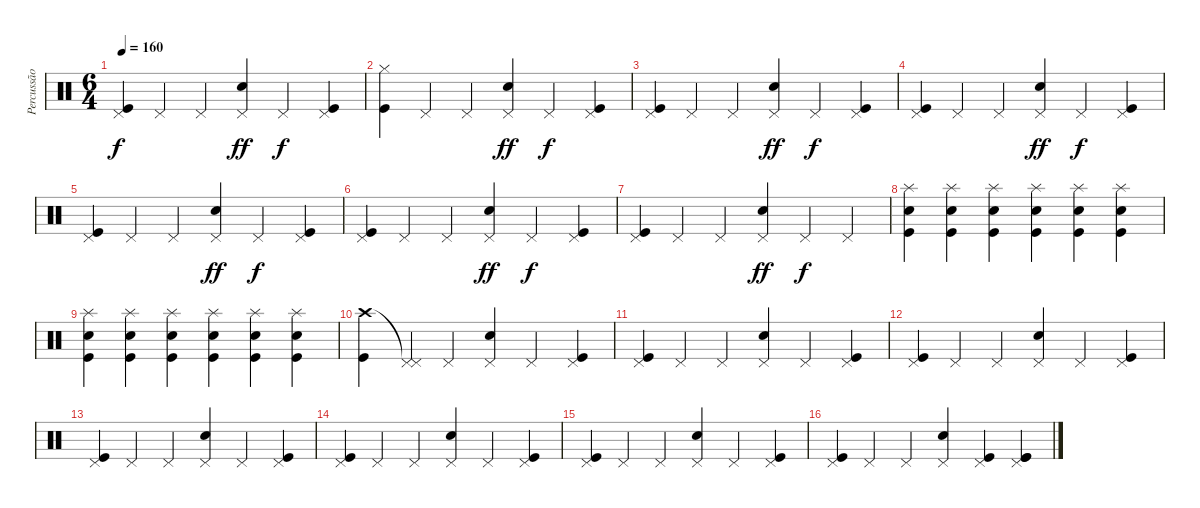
\track ("Percussão" "Percussão") {instrument percussion}
\staff {score}
\articulation defaults
\ts (6 4)
\tempo 160
\clef neutral
\ks c
("Pedal Hi-Hat (hit)" "Kick (hit)").4{dy f} "Pedal Hi-Hat (hit)".4 "Pedal Hi-Hat (hit)".4 ("Pedal Hi-Hat (hit)" "Snare (hit) 2").4{dy ff} "Pedal Hi-Hat (hit)".4{dy f} ("Pedal Hi-Hat (hit)" "Kick (hit)").4 |
("Hi-Hat (closed)" "Kick (hit)").4 "Pedal Hi-Hat (hit)".4 "Pedal Hi-Hat (hit)".4 ("Pedal Hi-Hat (hit)" "Snare (hit) 2").4{dy ff} "Pedal Hi-Hat (hit)".4{dy f} ("Pedal Hi-Hat (hit)" "Kick (hit)").4 |
("Pedal Hi-Hat (hit)" "Kick (hit)").4 "Pedal Hi-Hat (hit)".4 "Pedal Hi-Hat (hit)".4 ("Pedal Hi-Hat (hit)" "Snare (hit) 2").4{dy ff} "Pedal Hi-Hat (hit)".4{dy f} ("Pedal Hi-Hat (hit)" "Kick (hit)").4 |
("Pedal Hi-Hat (hit)" "Kick (hit)").4 "Pedal Hi-Hat (hit)".4 "Pedal Hi-Hat (hit)".4 ("Pedal Hi-Hat (hit)" "Snare (hit) 2").4{dy ff} "Pedal Hi-Hat (hit)".4{dy f} ("Pedal Hi-Hat (hit)" "Kick (hit)").4 |
("Pedal Hi-Hat (hit)" "Kick (hit)").4 "Pedal Hi-Hat (hit)".4 "Pedal Hi-Hat (hit)".4 ("Pedal Hi-Hat (hit)" "Snare (hit) 2").4{dy ff} "Pedal Hi-Hat (hit)".4{dy f} ("Pedal Hi-Hat (hit)" "Kick (hit)").4 |
("Pedal Hi-Hat (hit)" "Kick (hit)").4 "Pedal Hi-Hat (hit)".4 "Pedal Hi-Hat (hit)".4 ("Pedal Hi-Hat (hit)" "Snare (hit) 2").4{dy ff} "Pedal Hi-Hat (hit)".4{dy f} ("Pedal Hi-Hat (hit)" "Kick (hit)").4 |
("Pedal Hi-Hat (hit)" "Kick (hit)").4 "Pedal Hi-Hat (hit)".4 "Pedal Hi-Hat (hit)".4 ("Pedal Hi-Hat (hit)" "Snare (hit) 2").4{dy ff} "Pedal Hi-Hat (hit)".4{dy f} "Pedal Hi-Hat (hit)".4 |
("Splash (hit)" "Snare (hit) 2" "Kick (hit)").4 ("Splash (hit)" "Snare (hit) 2" "Kick (hit)").4 ("Splash (hit)" "Snare (hit) 2" "Kick (hit)").4 ("Splash (hit)" "Snare (hit) 2" "Kick (hit)").4 ("Splash (hit)" "Snare (hit) 2" "Kick (hit)").4 ("Splash (hit)" "Snare (hit) 2" "Kick (hit)").4 |
("Splash (hit)" "Snare (hit) 2" "Kick (hit)").4 ("Splash (hit)" "Snare (hit) 2" "Kick (hit)").4 ("Splash (hit)" "Snare (hit) 2" "Kick (hit)").4 ("Splash (hit)" "Snare (hit) 2" "Kick (hit)").4 ("Splash (hit)" "Snare (hit) 2" "Kick (hit)").4 ("Splash (hit)" "Snare (hit) 2" "Kick (hit)").4 |
("Crash high (hit)" "Kick (hit)").4 ("Pedal Hi-Hat (hit)"{t} "Pedal Hi-Hat (hit)").4 "Pedal Hi-Hat (hit)".4 ("Pedal Hi-Hat (hit)" "Snare (hit) 2").4 "Pedal Hi-Hat (hit)".4 ("Pedal Hi-Hat (hit)" "Kick (hit)").4 |
("Pedal Hi-Hat (hit)" "Kick (hit)").4 "Pedal Hi-Hat (hit)".4 "Pedal Hi-Hat (hit)".4 ("Pedal Hi-Hat (hit)" "Snare (hit) 2").4 "Pedal Hi-Hat (hit)".4 ("Pedal Hi-Hat (hit)" "Kick (hit)").4 |
("Pedal Hi-Hat (hit)" "Kick (hit)").4 "Pedal Hi-Hat (hit)".4 "Pedal Hi-Hat (hit)".4 ("Pedal Hi-Hat (hit)" "Snare (hit) 2").4 "Pedal Hi-Hat (hit)".4 ("Pedal Hi-Hat (hit)" "Kick (hit)").4 |
("Pedal Hi-Hat (hit)" "Kick (hit)").4 "Pedal Hi-Hat (hit)".4 "Pedal Hi-Hat (hit)".4 ("Pedal Hi-Hat (hit)" "Snare (hit) 2").4 "Pedal Hi-Hat (hit)".4 ("Pedal Hi-Hat (hit)" "Kick (hit)").4 |
("Pedal Hi-Hat (hit)" "Kick (hit)").4 "Pedal Hi-Hat (hit)".4 "Pedal Hi-Hat (hit)".4 ("Pedal Hi-Hat (hit)" "Snare (hit) 2").4 "Pedal Hi-Hat (hit)".4 ("Pedal Hi-Hat (hit)" "Kick (hit)").4 |
("Pedal Hi-Hat (hit)" "Kick (hit)").4 "Pedal Hi-Hat (hit)".4 "Pedal Hi-Hat (hit)".4 ("Pedal Hi-Hat (hit)" "Snare (hit) 2").4 "Pedal Hi-Hat (hit)".4 ("Pedal Hi-Hat (hit)" "Kick (hit)").4 |
("Pedal Hi-Hat (hit)" "Kick (hit)").4 "Pedal Hi-Hat (hit)".4 "Pedal Hi-Hat (hit)".4 ("Pedal Hi-Hat (hit)" "Snare (hit) 2").4 ("Pedal Hi-Hat (hit)" "Kick (hit)").4 ("Pedal Hi-Hat (hit)" "Kick (hit)" "Kick (hit)").4
